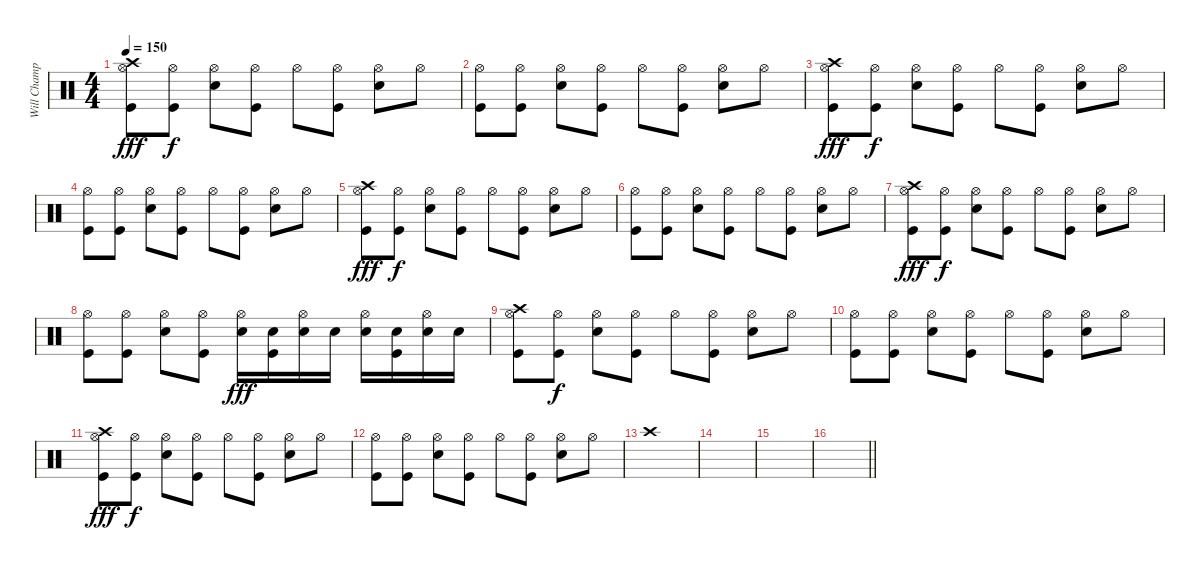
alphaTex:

\track ("Will Champion" "Will Champ") {instrument percussion}
\staff {score}
\articulation defaults
\ts (4 4)
\tempo 150
\clef neutral
\ks c
("Kick (hit)" "Hi-Hat (open)" "Crash high (hit)").8{dy fff} ("Kick (hit)" "Hi-Hat (open)").8{dy f} ("Snare (hit) 2" "Hi-Hat (open)").8 ("Kick (hit)" "Hi-Hat (open)").8 "Hi-Hat (open)".8 ("Kick (hit)" "Hi-Hat (open)").8 ("Snare (hit) 2" "Hi-Hat (open)").8 "Hi-Hat (open)".8 |
("Kick (hit)" "Hi-Hat (open)").8 ("Kick (hit)" "Hi-Hat (open)").8 ("Snare (hit) 2" "Hi-Hat (open)").8 ("Kick (hit)" "Hi-Hat (open)").8 "Hi-Hat (open)".8 ("Kick (hit)" "Hi-Hat (open)").8 ("Snare (hit) 2" "Hi-Hat (open)").8 "Hi-Hat (open)".8 |
("Kick (hit)" "Hi-Hat (open)" "Crash high (hit)").8{dy fff} ("Kick (hit)" "Hi-Hat (open)").8{dy f} ("Snare (hit) 2" "Hi-Hat (open)").8 ("Kick (hit)" "Hi-Hat (open)").8 "Hi-Hat (open)".8 ("Kick (hit)" "Hi-Hat (open)").8 ("Snare (hit) 2" "Hi-Hat (open)").8 "Hi-Hat (open)".8 |
("Kick (hit)" "Hi-Hat (open)").8 ("Kick (hit)" "Hi-Hat (open)").8 ("Snare (hit) 2" "Hi-Hat (open)").8 ("Kick (hit)" "Hi-Hat (open)").8 "Hi-Hat (open)".8 ("Kick (hit)" "Hi-Hat (open)").8 ("Snare (hit) 2" "Hi-Hat (open)").8 "Hi-Hat (open)".8 |
("Kick (hit)" "Hi-Hat (open)" "Crash high (hit)").8{dy fff} ("Kick (hit)" "Hi-Hat (open)").8{dy f} ("Snare (hit) 2" "Hi-Hat (open)").8 ("Kick (hit)" "Hi-Hat (open)").8 "Hi-Hat (open)".8 ("Kick (hit)" "Hi-Hat (open)").8 ("Snare (hit) 2" "Hi-Hat (open)").8 "Hi-Hat (open)".8 |
("Kick (hit)" "Hi-Hat (open)").8 ("Kick (hit)" "Hi-Hat (open)").8 ("Snare (hit) 2" "Hi-Hat (open)").8 ("Kick (hit)" "Hi-Hat (open)").8 "Hi-Hat (open)".8 ("Kick (hit)" "Hi-Hat (open)").8 ("Snare (hit) 2" "Hi-Hat (open)").8 "Hi-Hat (open)".8 |
("Kick (hit)" "Hi-Hat (open)" "Crash high (hit)").8{dy fff} ("Kick (hit)" "Hi-Hat (open)").8{dy f} ("Snare (hit) 2" "Hi-Hat (open)").8 ("Kick (hit)" "Hi-Hat (open)").8 "Hi-Hat (open)".8 ("Kick (hit)" "Hi-Hat (open)").8 ("Snare (hit) 2" "Hi-Hat (open)").8 "Hi-Hat (open)".8 |
("Kick (hit)" "Hi-Hat (open)").8 ("Kick (hit)" "Hi-Hat (open)").8 ("Snare (hit) 2" "Hi-Hat (open)").8 ("Kick (hit)" "Hi-Hat (open)").8 ("Hi-Hat (open)" "Snare (hit) 2").16{dy fff} ("Kick (hit)" "Snare (hit) 2").16 ("Hi-Hat (open)" "Snare (hit) 2").16 "Snare (hit) 2".16 ("Hi-Hat (open)" "Snare (hit) 2").16 ("Kick (hit)" "Snare (hit) 2").16 ("Hi-Hat (open)" "Snare (hit) 2").16 "Snare (hit) 2".16 |
("Kick (hit)" "Hi-Hat (open)" "Crash high (hit)").8 ("Kick (hit)" "Hi-Hat (open)").8{dy f} ("Snare (hit) 2" "Hi-Hat (open)").8 ("Kick (hit)" "Hi-Hat (open)").8 "Hi-Hat (open)".8 ("Kick (hit)" "Hi-Hat (open)").8 ("Snare (hit) 2" "Hi-Hat (open)").8 "Hi-Hat (open)".8 |
("Kick (hit)" "Hi-Hat (open)").8 ("Kick (hit)" "Hi-Hat (open)").8 ("Snare (hit) 2" "Hi-Hat (open)").8 ("Kick (hit)" "Hi-Hat (open)").8 "Hi-Hat (open)".8 ("Kick (hit)" "Hi-Hat (open)").8 ("Snare (hit) 2" "Hi-Hat (open)").8 "Hi-Hat (open)".8 |
("Kick (hit)" "Hi-Hat (open)" "Crash high (hit)").8{dy fff} ("Kick (hit)" "Hi-Hat (open)").8{dy f} ("Snare (hit) 2" "Hi-Hat (open)").8 ("Kick (hit)" "Hi-Hat (open)").8 "Hi-Hat (open)".8 ("Kick (hit)" "Hi-Hat (open)").8 ("Snare (hit) 2" "Hi-Hat (open)").8 "Hi-Hat (open)".8 |
("Kick (hit)" "Hi-Hat (open)").8 ("Kick (hit)" "Hi-Hat (open)").8 ("Snare (hit) 2" "Hi-Hat (open)").8 ("Kick (hit)" "Hi-Hat (open)").8 "Hi-Hat (open)".8 ("Kick (hit)" "Hi-Hat (open)").8 ("Snare (hit) 2" "Hi-Hat (open)").8 "Hi-Hat (open)".8 |
"Crash high (hit)".1 |
|
|
\barLineRight lightlight
